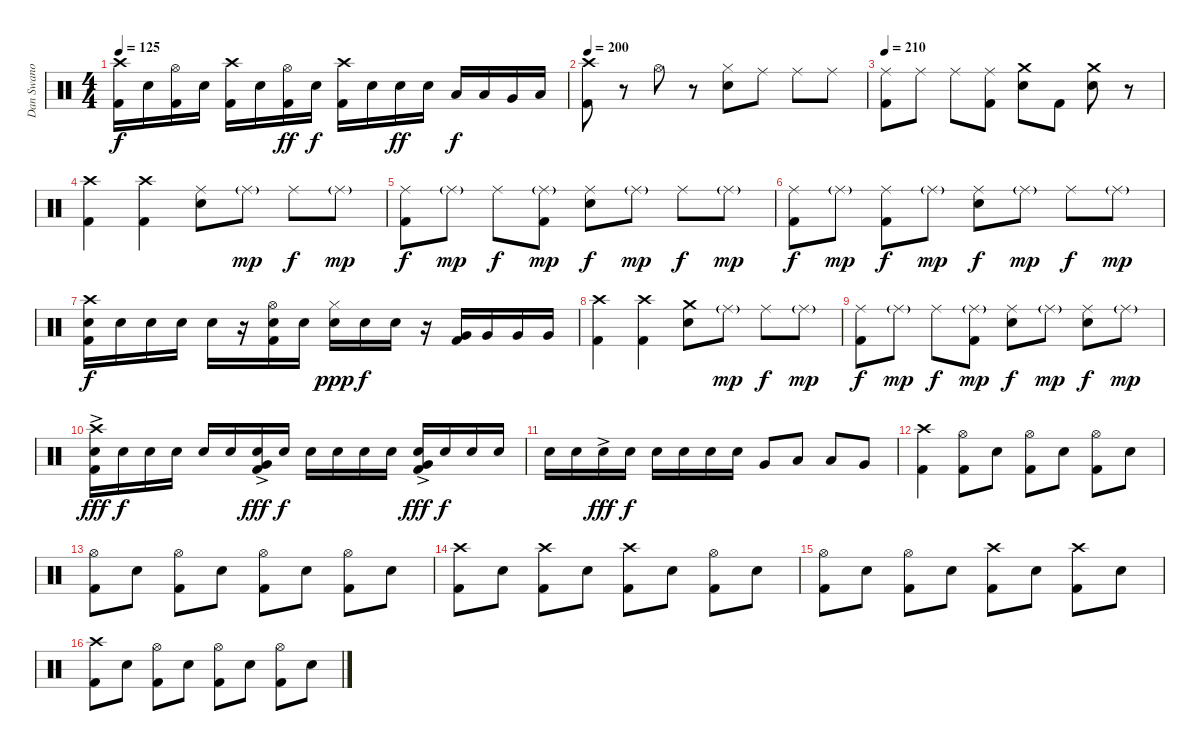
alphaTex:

\track ("Dan Swano" "Dan Swano") {instrument percussion}
\staff {score}
\articulation defaults
\ts (4 4)
\tempo 125
\clef neutral
\ks c
("Crash high (hit)" "Kick (hit) 2").16{dy f} "Electric Snare (hit)".16 ("Hi-Hat (open)" "Kick (hit) 2").16 "Electric Snare (hit)".16 ("Crash high (hit)" "Kick (hit) 2").16 "Electric Snare (hit)".16 ("Hi-Hat (open)" "Kick (hit) 2").16{dy ff} "Electric Snare (hit)".16{dy f} ("Crash high (hit)" "Kick (hit) 2").16 "Electric Snare (hit)".16 "Electric Snare (hit)".16{dy ff} "Electric Snare (hit)".16 "Low Tom (hit)".16{dy f} "Low Tom (hit)".16 "Very Low Tom (hit)".16 "Low Floor Tom (hit)".16 |
\tempo 200
("Crash high (hit)" "Kick (hit) 2").8 r.8 "Hi-Hat (open)".8 r.8 ("Hi-Hat (closed)" "Electric Snare (hit)").8 "Ride (middle)".8 "Ride (middle)".8 "Ride (middle)".8 |
\tempo 210
("Ride (middle)" "Kick (hit) 2").8 "Ride (middle)".8 "Ride (middle)".8 ("Ride (middle)" "Kick (hit) 2").8 ("Crash medium (hit)" "Electric Snare (hit)").8 "Kick (hit) 2".8 ("Crash medium (hit)" "Electric Snare (hit)").8 r.8 |
("Crash high (hit)" "Kick (hit) 2").4 ("Crash high (hit)" "Kick (hit) 2").4 ("Ride (middle)" "Electric Snare (hit)").8 "Ride (middle)"{g}.8{dy mp} "Ride (middle)".8{dy f} "Ride (middle)"{g}.8{dy mp} |
("Ride (middle)" "Kick (hit) 2").8{dy f} "Ride (middle)"{g}.8{dy mp} "Ride (middle)".8{dy f} ("Ride (middle)"{g} "Kick (hit) 2").8{dy mp} ("Ride (middle)" "Electric Snare (hit)").8{dy f} "Ride (middle)"{g}.8{dy mp} "Ride (middle)".8{dy f} "Ride (middle)"{g}.8{dy mp} |
("Ride (middle)" "Kick (hit) 2").8{dy f} "Ride (middle)"{g}.8{dy mp} ("Ride (middle)" "Kick (hit) 2").8{dy f} "Ride (middle)"{g}.8{dy mp} ("Ride (middle)" "Electric Snare (hit)").8{dy f} "Ride (middle)"{g}.8{dy mp} "Ride (middle)".8{dy f} "Ride (middle)"{g}.8{dy mp} |
("Crash high (hit)" "Electric Snare (hit)" "Kick (hit) 2").16{dy f} "Electric Snare (hit)".16 "Electric Snare (hit)".16 "Electric Snare (hit)".16 "Electric Snare (hit)".16 r.16 ("Hi-Hat (open)" "Electric Snare (hit)" "Kick (hit) 2").16 "Electric Snare (hit)".16 ("Hi-Hat (closed)" "Electric Snare (hit)").16{dy ppp} "Electric Snare (hit)".16{dy f} "Electric Snare (hit)".16 r.16 ("Very Low Tom (hit)" "Kick (hit) 2").16 "Very Low Tom (hit)".16 "Very Low Tom (hit)".16 "Very Low Tom (hit)".16 |
("Crash high (hit)" "Kick (hit) 2").4 ("Crash high (hit)" "Kick (hit) 2").4 ("Crash medium (hit)" "Electric Snare (hit)").8 "Ride (middle)"{g}.8{dy mp} "Ride (middle)".8{dy f} "Ride (middle)"{g}.8{dy mp} |
("Ride (middle)" "Kick (hit) 2").8{dy f} "Ride (middle)"{g}.8{dy mp} "Ride (middle)".8{dy f} ("Ride (middle)"{g} "Kick (hit) 2").8{dy mp} ("Ride (middle)" "Electric Snare (hit)").8{dy f} "Ride (middle)"{g}.8{dy mp} ("Ride (middle)" "Electric Snare (hit)").8{dy f} "Ride (middle)"{g}.8{dy mp} |
("Crash high (hit)" "Electric Snare (hit)"{ac} "Kick (hit) 2").16{dy fff} "Electric Snare (hit)".16{dy f} "Electric Snare (hit)".16 "Electric Snare (hit)".16 "Electric Snare (hit)".16 "Electric Snare (hit)".16 ("Very Low Tom (hit)" "Electric Snare (hit)"{ac} "Kick (hit) 2").16{dy fff} "Electric Snare (hit)".16{dy f} "Electric Snare (hit)".16 "Electric Snare (hit)".16 "Electric Snare (hit)".16 "Electric Snare (hit)".16 ("Very Low Tom (hit)" "Electric Snare (hit)"{ac} "Kick (hit) 2").16{dy fff} "Electric Snare (hit)".16{dy f} "Electric Snare (hit)".16 "Electric Snare (hit)".16 |
"Electric Snare (hit)".16 "Electric Snare (hit)".16 "Electric Snare (hit)"{ac}.16{dy fff} "Electric Snare (hit)".16{dy f} "Electric Snare (hit)".16 "Electric Snare (hit)".16 "Electric Snare (hit)".16 "Electric Snare (hit)".16 "Very Low Tom (hit)".8 "Low Floor Tom (hit)".8 "Low Tom (hit)".8 "Very Low Tom (hit)".8 |
("Crash high (hit)" "Kick (hit) 2").4 ("Hi-Hat (open)" "Kick (hit) 2").8 "Electric Snare (hit)".8 ("Hi-Hat (open)" "Kick (hit) 2").8 "Electric Snare (hit)".8 ("Hi-Hat (open)" "Kick (hit) 2").8 "Electric Snare (hit)".8 |
("Hi-Hat (open)" "Kick (hit) 2").8 "Electric Snare (hit)".8 ("Hi-Hat (open)" "Kick (hit) 2").8 "Electric Snare (hit)".8 ("Hi-Hat (open)" "Kick (hit) 2").8 "Electric Snare (hit)".8 ("Hi-Hat (open)" "Kick (hit) 2").8 "Electric Snare (hit)".8 |
("Crash high (hit)" "Kick (hit) 2").8 "Electric Snare (hit)".8 ("Crash high (hit)" "Kick (hit) 2").8 "Electric Snare (hit)".8 ("Crash high (hit)" "Kick (hit) 2").8 "Electric Snare (hit)".8 ("Hi-Hat (open)" "Kick (hit) 2").8 "Electric Snare (hit)".8 |
("Hi-Hat (open)" "Kick (hit) 2").8 "Electric Snare (hit)".8 ("Hi-Hat (open)" "Kick (hit) 2").8 "Electric Snare (hit)".8 ("Crash high (hit)" "Kick (hit) 2").8 "Electric Snare (hit)".8 ("Crash high (hit)" "Kick (hit) 2").8 "Electric Snare (hit)".8 |
("Crash high (hit)" "Kick (hit) 2").8 "Electric Snare (hit)".8 ("Hi-Hat (open)" "Kick (hit) 2").8 "Electric Snare (hit)".8 ("Hi-Hat (open)" "Kick (hit) 2").8 "Electric Snare (hit)".8 ("Hi-Hat (open)" "Kick (hit) 2").8 "Electric Snare (hit)".8
